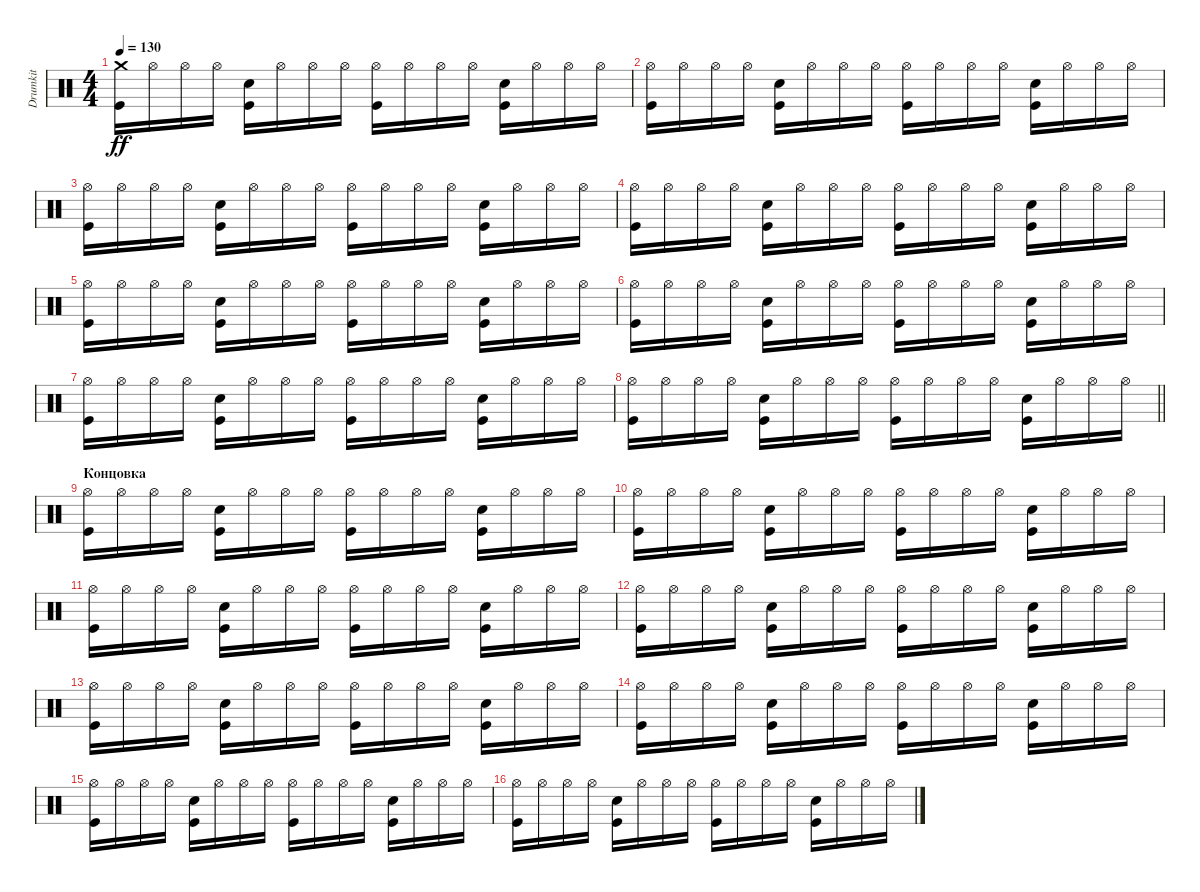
\track ("Drumkit" "Drumkit") {instrument percussion}
\staff {score}
\articulation defaults
\ts (4 4)
\tempo 130
\clef neutral
\ks c
("Kick (hit)" "Crash medium (hit)").16{dy ff} "Hi-Hat (open)".16 "Hi-Hat (open)".16 "Hi-Hat (open)".16 ("Snare (hit) 2" "Kick (hit)").16 "Hi-Hat (open)".16 "Hi-Hat (open)".16 "Hi-Hat (open)".16 ("Hi-Hat (open)" "Kick (hit)").16 "Hi-Hat (open)".16 "Hi-Hat (open)".16 "Hi-Hat (open)".16 ("Snare (hit) 2" "Kick (hit)").16 "Hi-Hat (open)".16 "Hi-Hat (open)".16 "Hi-Hat (open)".16 |
("Hi-Hat (open)" "Kick (hit)").16 "Hi-Hat (open)".16 "Hi-Hat (open)".16 "Hi-Hat (open)".16 ("Snare (hit) 2" "Kick (hit)").16 "Hi-Hat (open)".16 "Hi-Hat (open)".16 "Hi-Hat (open)".16 ("Hi-Hat (open)" "Kick (hit)").16 "Hi-Hat (open)".16 "Hi-Hat (open)".16 "Hi-Hat (open)".16 ("Snare (hit) 2" "Kick (hit)").16 "Hi-Hat (open)".16 "Hi-Hat (open)".16 "Hi-Hat (open)".16 |
("Hi-Hat (open)" "Kick (hit)").16 "Hi-Hat (open)".16 "Hi-Hat (open)".16 "Hi-Hat (open)".16 ("Snare (hit) 2" "Kick (hit)").16 "Hi-Hat (open)".16 "Hi-Hat (open)".16 "Hi-Hat (open)".16 ("Hi-Hat (open)" "Kick (hit)").16 "Hi-Hat (open)".16 "Hi-Hat (open)".16 "Hi-Hat (open)".16 ("Snare (hit) 2" "Kick (hit)").16 "Hi-Hat (open)".16 "Hi-Hat (open)".16 "Hi-Hat (open)".16 |
("Hi-Hat (open)" "Kick (hit)").16 "Hi-Hat (open)".16 "Hi-Hat (open)".16 "Hi-Hat (open)".16 ("Snare (hit) 2" "Kick (hit)").16 "Hi-Hat (open)".16 "Hi-Hat (open)".16 "Hi-Hat (open)".16 ("Hi-Hat (open)" "Kick (hit)").16 "Hi-Hat (open)".16 "Hi-Hat (open)".16 "Hi-Hat (open)".16 ("Snare (hit) 2" "Kick (hit)").16 "Hi-Hat (open)".16 "Hi-Hat (open)".16 "Hi-Hat (open)".16 |
("Hi-Hat (open)" "Kick (hit)").16 "Hi-Hat (open)".16 "Hi-Hat (open)".16 "Hi-Hat (open)".16 ("Snare (hit) 2" "Kick (hit)").16 "Hi-Hat (open)".16 "Hi-Hat (open)".16 "Hi-Hat (open)".16 ("Hi-Hat (open)" "Kick (hit)").16 "Hi-Hat (open)".16 "Hi-Hat (open)".16 "Hi-Hat (open)".16 ("Snare (hit) 2" "Kick (hit)").16 "Hi-Hat (open)".16 "Hi-Hat (open)".16 "Hi-Hat (open)".16 |
("Hi-Hat (open)" "Kick (hit)").16 "Hi-Hat (open)".16 "Hi-Hat (open)".16 "Hi-Hat (open)".16 ("Snare (hit) 2" "Kick (hit)").16 "Hi-Hat (open)".16 "Hi-Hat (open)".16 "Hi-Hat (open)".16 ("Hi-Hat (open)" "Kick (hit)").16 "Hi-Hat (open)".16 "Hi-Hat (open)".16 "Hi-Hat (open)".16 ("Snare (hit) 2" "Kick (hit)").16 "Hi-Hat (open)".16 "Hi-Hat (open)".16 "Hi-Hat (open)".16 |
("Hi-Hat (open)" "Kick (hit)").16 "Hi-Hat (open)".16 "Hi-Hat (open)".16 "Hi-Hat (open)".16 ("Snare (hit) 2" "Kick (hit)").16 "Hi-Hat (open)".16 "Hi-Hat (open)".16 "Hi-Hat (open)".16 ("Hi-Hat (open)" "Kick (hit)").16 "Hi-Hat (open)".16 "Hi-Hat (open)".16 "Hi-Hat (open)".16 ("Snare (hit) 2" "Kick (hit)").16 "Hi-Hat (open)".16 "Hi-Hat (open)".16 "Hi-Hat (open)".16 |
\barLineRight lightlight
("Hi-Hat (open)" "Kick (hit)").16 "Hi-Hat (open)".16 "Hi-Hat (open)".16 "Hi-Hat (open)".16 ("Snare (hit) 2" "Kick (hit)").16 "Hi-Hat (open)".16 "Hi-Hat (open)".16 "Hi-Hat (open)".16 ("Hi-Hat (open)" "Kick (hit)").16 "Hi-Hat (open)".16 "Hi-Hat (open)".16 "Hi-Hat (open)".16 ("Snare (hit) 2" "Kick (hit)").16 "Hi-Hat (open)".16 "Hi-Hat (open)".16 "Hi-Hat (open)".16 |
\section ("" "Концовка")
("Hi-Hat (open)" "Kick (hit)").16 "Hi-Hat (open)".16 "Hi-Hat (open)".16 "Hi-Hat (open)".16 ("Snare (hit) 2" "Kick (hit)").16 "Hi-Hat (open)".16 "Hi-Hat (open)".16 "Hi-Hat (open)".16 ("Hi-Hat (open)" "Kick (hit)").16 "Hi-Hat (open)".16 "Hi-Hat (open)".16 "Hi-Hat (open)".16 ("Snare (hit) 2" "Kick (hit)").16 "Hi-Hat (open)".16 "Hi-Hat (open)".16 "Hi-Hat (open)".16 |
("Hi-Hat (open)" "Kick (hit)").16 "Hi-Hat (open)".16 "Hi-Hat (open)".16 "Hi-Hat (open)".16 ("Snare (hit) 2" "Kick (hit)").16 "Hi-Hat (open)".16 "Hi-Hat (open)".16 "Hi-Hat (open)".16 ("Hi-Hat (open)" "Kick (hit)").16 "Hi-Hat (open)".16 "Hi-Hat (open)".16 "Hi-Hat (open)".16 ("Snare (hit) 2" "Kick (hit)").16 "Hi-Hat (open)".16 "Hi-Hat (open)".16 "Hi-Hat (open)".16 |
("Hi-Hat (open)" "Kick (hit)").16 "Hi-Hat (open)".16 "Hi-Hat (open)".16 "Hi-Hat (open)".16 ("Snare (hit) 2" "Kick (hit)").16 "Hi-Hat (open)".16 "Hi-Hat (open)".16 "Hi-Hat (open)".16 ("Hi-Hat (open)" "Kick (hit)").16 "Hi-Hat (open)".16 "Hi-Hat (open)".16 "Hi-Hat (open)".16 ("Snare (hit) 2" "Kick (hit)").16 "Hi-Hat (open)".16 "Hi-Hat (open)".16 "Hi-Hat (open)".16 |
("Hi-Hat (open)" "Kick (hit)").16 "Hi-Hat (open)".16 "Hi-Hat (open)".16 "Hi-Hat (open)".16 ("Snare (hit) 2" "Kick (hit)").16 "Hi-Hat (open)".16 "Hi-Hat (open)".16 "Hi-Hat (open)".16 ("Hi-Hat (open)" "Kick (hit)").16 "Hi-Hat (open)".16 "Hi-Hat (open)".16 "Hi-Hat (open)".16 ("Snare (hit) 2" "Kick (hit)").16 "Hi-Hat (open)".16 "Hi-Hat (open)".16 "Hi-Hat (open)".16 |
("Hi-Hat (open)" "Kick (hit)").16 "Hi-Hat (open)".16 "Hi-Hat (open)".16 "Hi-Hat (open)".16 ("Snare (hit) 2" "Kick (hit)").16 "Hi-Hat (open)".16 "Hi-Hat (open)".16 "Hi-Hat (open)".16 ("Hi-Hat (open)" "Kick (hit)").16 "Hi-Hat (open)".16 "Hi-Hat (open)".16 "Hi-Hat (open)".16 ("Snare (hit) 2" "Kick (hit)").16 "Hi-Hat (open)".16 "Hi-Hat (open)".16 "Hi-Hat (open)".16 |
("Hi-Hat (open)" "Kick (hit)").16 "Hi-Hat (open)".16 "Hi-Hat (open)".16 "Hi-Hat (open)".16 ("Snare (hit) 2" "Kick (hit)").16 "Hi-Hat (open)".16 "Hi-Hat (open)".16 "Hi-Hat (open)".16 ("Hi-Hat (open)" "Kick (hit)").16 "Hi-Hat (open)".16 "Hi-Hat (open)".16 "Hi-Hat (open)".16 ("Snare (hit) 2" "Kick (hit)").16 "Hi-Hat (open)".16 "Hi-Hat (open)".16 "Hi-Hat (open)".16 |
("Hi-Hat (open)" "Kick (hit)").16 "Hi-Hat (open)".16 "Hi-Hat (open)".16 "Hi-Hat (open)".16 ("Snare (hit) 2" "Kick (hit)").16 "Hi-Hat (open)".16 "Hi-Hat (open)".16 "Hi-Hat (open)".16 ("Hi-Hat (open)" "Kick (hit)").16 "Hi-Hat (open)".16 "Hi-Hat (open)".16 "Hi-Hat (open)".16 ("Snare (hit) 2" "Kick (hit)").16 "Hi-Hat (open)".16 "Hi-Hat (open)".16 "Hi-Hat (open)".16 |
("Hi-Hat (open)" "Kick (hit)").16 "Hi-Hat (open)".16 "Hi-Hat (open)".16 "Hi-Hat (open)".16 ("Snare (hit) 2" "Kick (hit)").16 "Hi-Hat (open)".16 "Hi-Hat (open)".16 "Hi-Hat (open)".16 ("Hi-Hat (open)" "Kick (hit)").16 "Hi-Hat (open)".16 "Hi-Hat (open)".16 "Hi-Hat (open)".16 ("Snare (hit) 2" "Kick (hit)").16 "Hi-Hat (open)".16 "Hi-Hat (open)".16 "Hi-Hat (open)".16
